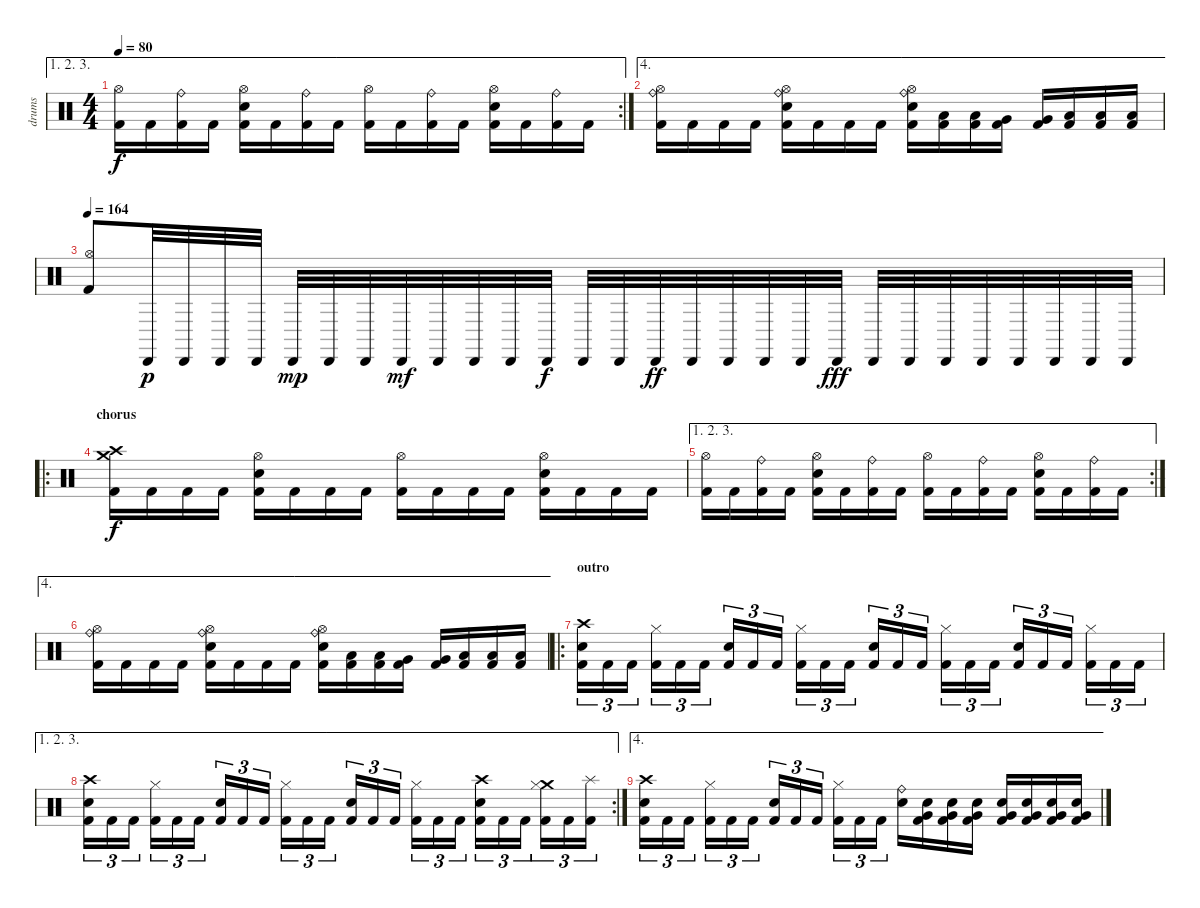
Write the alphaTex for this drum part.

\track ("drums" "drums") {instrument percussion}
\staff {score}
\articulation defaults
\ae (1 2 3)
\rc 2
\ts (4 4)
\tempo 80
\clef neutral
\ks c
("Hi-Hat (open)" "Kick (hit) 2").16{dy f} "Kick (hit) 2".16 ("Ride (bell)" "Kick (hit) 2").16 "Kick (hit) 2".16 ("Hi-Hat (open)" "Electric Snare (hit)" "Kick (hit) 2").16 "Kick (hit) 2".16 ("Ride (bell)" "Kick (hit) 2").16 "Kick (hit) 2".16 ("Hi-Hat (open)" "Kick (hit) 2").16 "Kick (hit) 2".16 ("Ride (bell)" "Kick (hit) 2").16 "Kick (hit) 2".16 ("Hi-Hat (open)" "Electric Snare (hit)" "Kick (hit) 2").16 "Kick (hit) 2".16 ("Ride (bell)" "Kick (hit) 2").16 "Kick (hit) 2".16 |
\ae 4
("Ride (bell)" "Hi-Hat (open)" "Kick (hit) 2").16 "Kick (hit) 2".16 "Kick (hit) 2".16 "Kick (hit) 2".16 ("Ride (bell)" "Hi-Hat (open)" "Electric Snare (hit)" "Kick (hit) 2").16 "Kick (hit) 2".16 "Kick (hit) 2".16 "Kick (hit) 2".16 ("Ride (bell)" "Hi-Hat (open)" "Electric Snare (hit)" "Kick (hit) 2").16 ("Low Tom (hit)" "Kick (hit) 2").16 ("Low Tom (hit)" "Kick (hit) 2").16 ("Very Low Tom (hit)" "Kick (hit) 2").16 ("Very Low Tom (hit)" "Kick (hit) 2").16 ("Low Floor Tom (hit)" "Kick (hit) 2").16 ("Low Floor Tom (hit)" "Kick (hit) 2").16 ("Low Floor Tom (hit)" "Kick (hit) 2").16 |
\tempo 164
("Hi-Hat (open)" "Kick (hit) 2").8 "Cabasa (hit)".32{dy p} "Cabasa (hit)".32 "Cabasa (hit)".32 "Cabasa (hit)".32 "Cabasa (hit)".32{dy mp} "Cabasa (hit)".32 "Cabasa (hit)".32 "Cabasa (hit)".32{dy mf} "Cabasa (hit)".32 "Cabasa (hit)".32 "Cabasa (hit)".32 "Cabasa (hit)".32{dy f} "Cabasa (hit)".32 "Cabasa (hit)".32 "Cabasa (hit)".32{dy ff} "Cabasa (hit)".32 "Cabasa (hit)".32 "Cabasa (hit)".32 "Cabasa (hit)".32 "Cabasa (hit)".32{dy fff} "Cabasa (hit)".32 "Cabasa (hit)".32 "Cabasa (hit)".32 "Cabasa (hit)".32 "Cabasa (hit)".32 "Cabasa (hit)".32 "Cabasa (hit)".32 "Cabasa (hit)".32 |
\ro
\section ("" "chorus")
("Crash high (hit)" "Crash medium (hit)" "Kick (hit) 2").16{dy f} "Kick (hit) 2".16 "Kick (hit) 2".16 "Kick (hit) 2".16 ("Hi-Hat (open)" "Electric Snare (hit)" "Kick (hit) 2").16 "Kick (hit) 2".16 "Kick (hit) 2".16 "Kick (hit) 2".16 ("Hi-Hat (open)" "Kick (hit) 2").16 "Kick (hit) 2".16 "Kick (hit) 2".16 "Kick (hit) 2".16 ("Hi-Hat (open)" "Electric Snare (hit)" "Kick (hit) 2").16 "Kick (hit) 2".16 "Kick (hit) 2".16 "Kick (hit) 2".16 |
\ae (1 2 3)
\rc 2
("Hi-Hat (open)" "Kick (hit) 2").16 "Kick (hit) 2".16 ("Ride (bell)" "Kick (hit) 2").16 "Kick (hit) 2".16 ("Hi-Hat (open)" "Electric Snare (hit)" "Kick (hit) 2").16 "Kick (hit) 2".16 ("Ride (bell)" "Kick (hit) 2").16 "Kick (hit) 2".16 ("Hi-Hat (open)" "Kick (hit) 2").16 "Kick (hit) 2".16 ("Ride (bell)" "Kick (hit) 2").16 "Kick (hit) 2".16 ("Hi-Hat (open)" "Electric Snare (hit)" "Kick (hit) 2").16 "Kick (hit) 2".16 ("Ride (bell)" "Kick (hit) 2").16 "Kick (hit) 2".16 |
\ae 4
("Ride (bell)" "Hi-Hat (open)" "Kick (hit) 2").16 "Kick (hit) 2".16 "Kick (hit) 2".16 "Kick (hit) 2".16 ("Ride (bell)" "Hi-Hat (open)" "Electric Snare (hit)" "Kick (hit) 2").16 "Kick (hit) 2".16 "Kick (hit) 2".16 "Kick (hit) 2".16 ("Ride (bell)" "Hi-Hat (open)" "Electric Snare (hit)" "Kick (hit) 2").16 ("Low Tom (hit)" "Kick (hit) 2").16 ("Low Tom (hit)" "Kick (hit) 2").16 ("Very Low Tom (hit)" "Kick (hit) 2").16 ("Very Low Tom (hit)" "Kick (hit) 2").16 ("Low Floor Tom (hit)" "Kick (hit) 2").16 ("Low Floor Tom (hit)" "Kick (hit) 2").16 ("Low Floor Tom (hit)" "Kick (hit) 2").16 |
\ro
\section ("" "outro")
("Crash high (hit)" "Electric Snare (hit)" "Kick (hit) 2").16{tu (3 2)} "Kick (hit) 2".16{tu (3 2)} "Kick (hit) 2".16{tu (3 2)} ("Hi-Hat (closed)" "Kick (hit) 2").16{tu (3 2)} "Kick (hit) 2".16{tu (3 2)} "Kick (hit) 2".16{tu (3 2)} ("Electric Snare (hit)" "Kick (hit) 2").16{tu (3 2)} "Kick (hit) 2".16{tu (3 2)} "Kick (hit) 2".16{tu (3 2)} ("Hi-Hat (closed)" "Kick (hit) 2").16{tu (3 2)} "Kick (hit) 2".16{tu (3 2)} "Kick (hit) 2".16{tu (3 2)} ("Electric Snare (hit)" "Kick (hit) 2").16{tu (3 2)} "Kick (hit) 2".16{tu (3 2)} "Kick (hit) 2".16{tu (3 2)} ("Hi-Hat (closed)" "Kick (hit) 2").16{tu (3 2)} "Kick (hit) 2".16{tu (3 2)} "Kick (hit) 2".16{tu (3 2)} ("Electric Snare (hit)" "Kick (hit) 2").16{tu (3 2)} "Kick (hit) 2".16{tu (3 2)} "Kick (hit) 2".16{tu (3 2)} ("Hi-Hat (closed)" "Kick (hit) 2").16{tu (3 2)} "Kick (hit) 2".16{tu (3 2)} "Kick (hit) 2".16{tu (3 2)} |
\ae (1 2 3)
\rc 2
("Crash high (hit)" "Electric Snare (hit)" "Kick (hit) 2").16{tu (3 2)} "Kick (hit) 2".16{tu (3 2)} "Kick (hit) 2".16{tu (3 2)} ("Hi-Hat (closed)" "Kick (hit) 2").16{tu (3 2)} "Kick (hit) 2".16{tu (3 2)} "Kick (hit) 2".16{tu (3 2)} ("Electric Snare (hit)" "Kick (hit) 2").16{tu (3 2)} "Kick (hit) 2".16{tu (3 2)} "Kick (hit) 2".16{tu (3 2)} ("Hi-Hat (closed)" "Kick (hit) 2").16{tu (3 2)} "Kick (hit) 2".16{tu (3 2)} "Kick (hit) 2".16{tu (3 2)} ("Electric Snare (hit)" "Kick (hit) 2").16{tu (3 2)} "Kick (hit) 2".16{tu (3 2)} "Kick (hit) 2".16{tu (3 2)} ("Hi-Hat (closed)" "Kick (hit) 2").16{tu (3 2)} "Kick (hit) 2".16{tu (3 2)} "Kick (hit) 2".16{tu (3 2)} ("Crash high (hit)" "Electric Snare (hit)" "Kick (hit) 2").16{tu (3 2)} "Kick (hit) 2".16{tu (3 2)} "Kick (hit) 2".16{tu (3 2)} ("Crash medium (hit)" "Hi-Hat (closed)" "Kick (hit) 2").16{tu (3 2)} "Kick (hit) 2".16{tu (3 2)} ("Splash (hit)" "Kick (hit) 2").16{tu (3 2)} |
\ae 4
("Crash high (hit)" "Electric Snare (hit)" "Kick (hit) 2").16{tu (3 2)} "Kick (hit) 2".16{tu (3 2)} "Kick (hit) 2".16{tu (3 2)} ("Hi-Hat (closed)" "Kick (hit) 2").16{tu (3 2)} "Kick (hit) 2".16{tu (3 2)} "Kick (hit) 2".16{tu (3 2)} ("Electric Snare (hit)" "Kick (hit) 2").16{tu (3 2)} "Kick (hit) 2".16{tu (3 2)} "Kick (hit) 2".16{tu (3 2)} ("Hi-Hat (closed)" "Kick (hit) 2").16{tu (3 2)} "Kick (hit) 2".16{tu (3 2)} "Kick (hit) 2".16{tu (3 2)} ("Ride (bell)" "Electric Snare (hit)").16 ("Very Low Tom (hit)" "Electric Snare (hit)" "Kick (hit) 2").16 ("Very Low Tom (hit)" "Electric Snare (hit)" "Kick (hit) 2").16 ("Very Low Tom (hit)" "Electric Snare (hit)" "Kick (hit) 2").16 ("Very Low Tom (hit)" "Electric Snare (hit)" "Kick (hit) 2").16 ("Very Low Tom (hit)" "Electric Snare (hit)" "Kick (hit) 2").16 ("Very Low Tom (hit)" "Electric Snare (hit)" "Kick (hit) 2").16 ("Very Low Tom (hit)" "Electric Snare (hit)" "Kick (hit) 2").16
